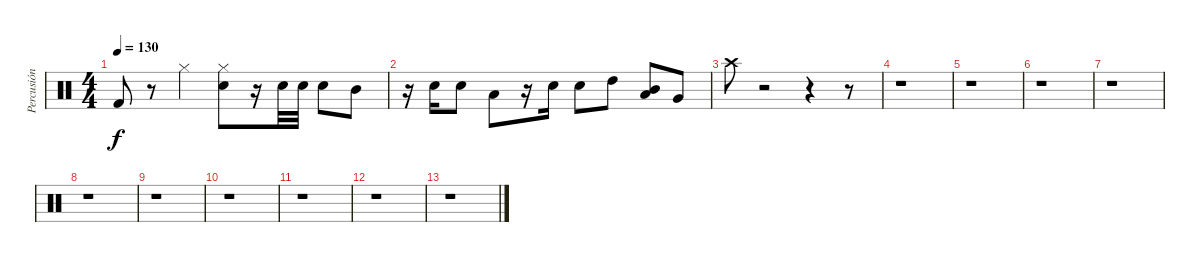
\track ("Percusión" "Percusión") {instrument percussion}
\staff {score}
\articulation defaults
\ts (4 4)
\tempo 130
\clef neutral
\ks c "Kick (hit) 2".8{dy f}
r.8 "Hi-Hat (closed)".4 ("Electric Snare (hit)" "Hi-Hat (closed)").8 r.16 "Electric Snare (hit)".32 "Electric Snare (hit)".32 "Electric Snare (hit)".8 "Mid Tom (hit)".8 |
r.16 "Electric Snare (hit)".16 "Electric Snare (hit)".8 "Low Tom (hit)".8 r.16 "Electric Snare (hit)".16 "Electric Snare (hit)".8 "High Tom (hit)".8 ("Low Tom (hit)" "Mid Tom (hit)").8 "Very Low Tom (hit)".8 |
"Crash high (hit)".8 r.2 r.4 r.8 |
r.1 |
r.1 |
r.1 |
r.1 |
r.1 |
r.1 |
r.1 |
r.1 |
r.1 |
r.1
